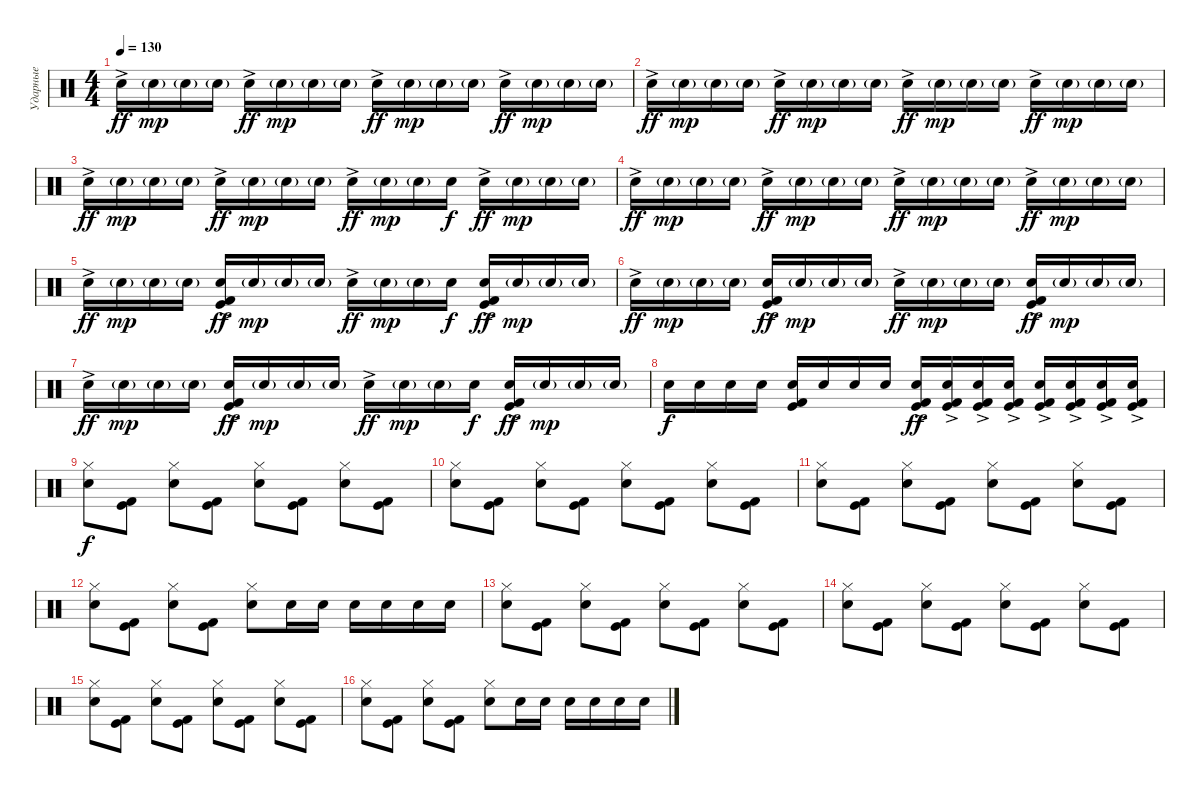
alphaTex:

\track ("Ударные" "Ударные") {instrument percussion}
\staff {score}
\articulation defaults
\ts (4 4)
\tempo 130
\clef neutral
\ks c "Electric Snare (hit)"{ac}.16{dy ff} "Electric Snare (hit)"{g}.16{dy mp} "Electric Snare (hit)"{g}.16 "Electric Snare (hit)"{g}.16 "Electric Snare (hit)"{ac}.16{dy ff} "Electric Snare (hit)"{g}.16{dy mp} "Electric Snare (hit)"{g}.16 "Electric Snare (hit)"{g}.16 "Electric Snare (hit)"{ac}.16{dy ff} "Electric Snare (hit)"{g}.16{dy mp} "Electric Snare (hit)"{g}.16 "Electric Snare (hit)"{g}.16 "Electric Snare (hit)"{ac}.16{dy ff} "Electric Snare (hit)"{g}.16{dy mp} "Electric Snare (hit)"{g}.16 "Electric Snare (hit)"{g}.16
|
"Electric Snare (hit)"{ac}.16{dy ff} "Electric Snare (hit)"{g}.16{dy mp} "Electric Snare (hit)"{g}.16 "Electric Snare (hit)"{g}.16 "Electric Snare (hit)"{ac}.16{dy ff} "Electric Snare (hit)"{g}.16{dy mp} "Electric Snare (hit)"{g}.16 "Electric Snare (hit)"{g}.16 "Electric Snare (hit)"{ac}.16{dy ff} "Electric Snare (hit)"{g}.16{dy mp} "Electric Snare (hit)"{g}.16 "Electric Snare (hit)"{g}.16 "Electric Snare (hit)"{ac}.16{dy ff} "Electric Snare (hit)"{g}.16{dy mp} "Electric Snare (hit)"{g}.16 "Electric Snare (hit)"{g}.16 |
"Electric Snare (hit)"{ac}.16{dy ff} "Electric Snare (hit)"{g}.16{dy mp} "Electric Snare (hit)"{g}.16 "Electric Snare (hit)"{g}.16 "Electric Snare (hit)"{ac}.16{dy ff} "Electric Snare (hit)"{g}.16{dy mp} "Electric Snare (hit)"{g}.16 "Electric Snare (hit)"{g}.16 "Electric Snare (hit)"{ac}.16{dy ff} "Electric Snare (hit)"{g}.16{dy mp} "Electric Snare (hit)"{g}.16 "Electric Snare (hit)".16{dy f} "Electric Snare (hit)"{ac}.16{dy ff} "Electric Snare (hit)"{g}.16{dy mp} "Electric Snare (hit)"{g}.16 "Electric Snare (hit)"{g}.16 |
"Electric Snare (hit)"{ac}.16{dy ff} "Electric Snare (hit)"{g}.16{dy mp} "Electric Snare (hit)"{g}.16 "Electric Snare (hit)"{g}.16 "Electric Snare (hit)"{ac}.16{dy ff} "Electric Snare (hit)"{g}.16{dy mp} "Electric Snare (hit)"{g}.16 "Electric Snare (hit)"{g}.16 "Electric Snare (hit)"{ac}.16{dy ff} "Electric Snare (hit)"{g}.16{dy mp} "Electric Snare (hit)"{g}.16 "Electric Snare (hit)"{g}.16 "Electric Snare (hit)"{ac}.16{dy ff} "Electric Snare (hit)"{g}.16{dy mp} "Electric Snare (hit)"{g}.16 "Electric Snare (hit)"{g}.16 |
"Electric Snare (hit)"{ac}.16{dy ff} "Electric Snare (hit)"{g}.16{dy mp} "Electric Snare (hit)"{g}.16 "Electric Snare (hit)"{g}.16 ("Electric Snare (hit)"{ac} "Kick (hit)" "Kick (hit) 2").16{dy ff} "Electric Snare (hit)"{g}.16{dy mp} "Electric Snare (hit)"{g}.16 "Electric Snare (hit)"{g}.16 "Electric Snare (hit)"{ac}.16{dy ff} "Electric Snare (hit)"{g}.16{dy mp} "Electric Snare (hit)"{g}.16 "Electric Snare (hit)".16{dy f} ("Electric Snare (hit)"{ac} "Kick (hit)" "Kick (hit) 2").16{dy ff} "Electric Snare (hit)"{g}.16{dy mp} "Electric Snare (hit)"{g}.16 "Electric Snare (hit)"{g}.16 |
"Electric Snare (hit)"{ac}.16{dy ff} "Electric Snare (hit)"{g}.16{dy mp} "Electric Snare (hit)"{g}.16 "Electric Snare (hit)"{g}.16 ("Electric Snare (hit)"{ac} "Kick (hit)" "Kick (hit) 2").16{dy ff} "Electric Snare (hit)"{g}.16{dy mp} "Electric Snare (hit)"{g}.16 "Electric Snare (hit)"{g}.16 "Electric Snare (hit)"{ac}.16{dy ff} "Electric Snare (hit)"{g}.16{dy mp} "Electric Snare (hit)"{g}.16 "Electric Snare (hit)"{g}.16 ("Electric Snare (hit)"{ac} "Kick (hit)" "Kick (hit) 2").16{dy ff} "Electric Snare (hit)"{g}.16{dy mp} "Electric Snare (hit)"{g}.16 "Electric Snare (hit)"{g}.16 |
"Electric Snare (hit)"{ac}.16{dy ff} "Electric Snare (hit)"{g}.16{dy mp} "Electric Snare (hit)"{g}.16 "Electric Snare (hit)"{g}.16 ("Electric Snare (hit)"{ac} "Kick (hit)" "Kick (hit) 2").16{dy ff} "Electric Snare (hit)"{g}.16{dy mp} "Electric Snare (hit)"{g}.16 "Electric Snare (hit)"{g}.16 "Electric Snare (hit)"{ac}.16{dy ff} "Electric Snare (hit)"{g}.16{dy mp} "Electric Snare (hit)"{g}.16 "Electric Snare (hit)".16{dy f} ("Electric Snare (hit)"{ac} "Kick (hit)" "Kick (hit) 2").16{dy ff} "Electric Snare (hit)"{g}.16{dy mp} "Electric Snare (hit)"{g}.16 "Electric Snare (hit)"{g}.16 |
"Electric Snare (hit)".16{dy f} "Electric Snare (hit)".16 "Electric Snare (hit)".16 "Electric Snare (hit)".16 ("Electric Snare (hit)" "Kick (hit)" "Kick (hit) 2").16 "Electric Snare (hit)".16 "Electric Snare (hit)".16 "Electric Snare (hit)".16 ("Electric Snare (hit)"{ac} "Kick (hit)" "Kick (hit) 2").16{dy ff} ("Electric Snare (hit)"{ac} "Kick (hit)" "Kick (hit) 2").16 ("Electric Snare (hit)"{ac} "Kick (hit)" "Kick (hit) 2").16 ("Electric Snare (hit)"{ac} "Kick (hit)" "Kick (hit) 2").16 ("Electric Snare (hit)"{ac} "Kick (hit)" "Kick (hit) 2").16 ("Electric Snare (hit)"{ac} "Kick (hit)" "Kick (hit) 2").16 ("Electric Snare (hit)"{ac} "Kick (hit)" "Kick (hit) 2").16 ("Electric Snare (hit)"{ac} "Kick (hit)" "Kick (hit) 2").16 |
("Hi-Hat (closed)" "Electric Snare (hit)").8{dy f} ("Kick (hit)" "Kick (hit) 2").8 ("Hi-Hat (closed)" "Electric Snare (hit)").8 ("Kick (hit)" "Kick (hit) 2").8 ("Hi-Hat (closed)" "Electric Snare (hit)").8 ("Kick (hit)" "Kick (hit) 2").8 ("Hi-Hat (closed)" "Electric Snare (hit)").8 ("Kick (hit)" "Kick (hit) 2").8 |
("Hi-Hat (closed)" "Electric Snare (hit)").8 ("Kick (hit)" "Kick (hit) 2").8 ("Hi-Hat (closed)" "Electric Snare (hit)").8 ("Kick (hit)" "Kick (hit) 2").8 ("Hi-Hat (closed)" "Electric Snare (hit)").8 ("Kick (hit)" "Kick (hit) 2").8 ("Hi-Hat (closed)" "Electric Snare (hit)").8 ("Kick (hit)" "Kick (hit) 2").8 |
("Hi-Hat (closed)" "Electric Snare (hit)").8 ("Kick (hit)" "Kick (hit) 2").8 ("Hi-Hat (closed)" "Electric Snare (hit)").8 ("Kick (hit)" "Kick (hit) 2").8 ("Hi-Hat (closed)" "Electric Snare (hit)").8 ("Kick (hit)" "Kick (hit) 2").8 ("Hi-Hat (closed)" "Electric Snare (hit)").8 ("Kick (hit)" "Kick (hit) 2").8 |
("Hi-Hat (closed)" "Electric Snare (hit)").8 ("Kick (hit)" "Kick (hit) 2").8 ("Hi-Hat (closed)" "Electric Snare (hit)").8 ("Kick (hit)" "Kick (hit) 2").8 ("Hi-Hat (closed)" "Electric Snare (hit)").8 "Electric Snare (hit)".16 "Electric Snare (hit)".16 "Electric Snare (hit)".16 "Electric Snare (hit)".16 "Electric Snare (hit)".16 "Electric Snare (hit)".16 |
("Hi-Hat (closed)" "Electric Snare (hit)").8 ("Kick (hit)" "Kick (hit) 2").8 ("Hi-Hat (closed)" "Electric Snare (hit)").8 ("Kick (hit)" "Kick (hit) 2").8 ("Hi-Hat (closed)" "Electric Snare (hit)").8 ("Kick (hit)" "Kick (hit) 2").8 ("Hi-Hat (closed)" "Electric Snare (hit)").8 ("Kick (hit)" "Kick (hit) 2").8 |
("Hi-Hat (closed)" "Electric Snare (hit)").8 ("Kick (hit)" "Kick (hit) 2").8 ("Hi-Hat (closed)" "Electric Snare (hit)").8 ("Kick (hit)" "Kick (hit) 2").8 ("Hi-Hat (closed)" "Electric Snare (hit)").8 ("Kick (hit)" "Kick (hit) 2").8 ("Hi-Hat (closed)" "Electric Snare (hit)").8 ("Kick (hit)" "Kick (hit) 2").8 |
("Hi-Hat (closed)" "Electric Snare (hit)").8 ("Kick (hit)" "Kick (hit) 2").8 ("Hi-Hat (closed)" "Electric Snare (hit)").8 ("Kick (hit)" "Kick (hit) 2").8 ("Hi-Hat (closed)" "Electric Snare (hit)").8 ("Kick (hit)" "Kick (hit) 2").8 ("Hi-Hat (closed)" "Electric Snare (hit)").8 ("Kick (hit)" "Kick (hit) 2").8 |
("Hi-Hat (closed)" "Electric Snare (hit)").8 ("Kick (hit)" "Kick (hit) 2").8 ("Hi-Hat (closed)" "Electric Snare (hit)").8 ("Kick (hit)" "Kick (hit) 2").8 ("Hi-Hat (closed)" "Electric Snare (hit)").8 "Electric Snare (hit)".16 "Electric Snare (hit)".16 "Electric Snare (hit)".16 "Electric Snare (hit)".16 "Electric Snare (hit)".16 "Electric Snare (hit)".16
